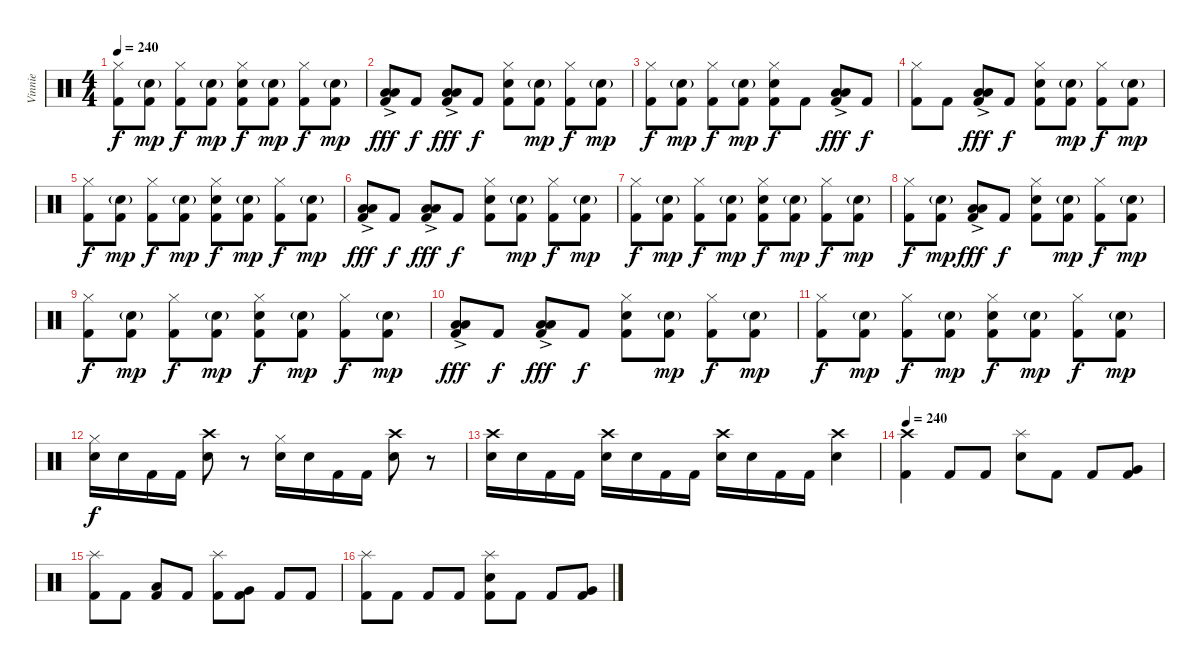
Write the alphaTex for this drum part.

\track ("Vinnie" "Vinnie") {instrument percussion}
\staff {score}
\articulation defaults
\ts (4 4)
\tempo 240
\clef neutral
\ks c
("Hi-Hat (closed)" "Kick (hit) 2").8{dy f} ("Electric Snare (hit)"{g} "Kick (hit) 2").8{dy mp} ("Hi-Hat (closed)" "Kick (hit) 2").8{dy f} ("Electric Snare (hit)"{g} "Kick (hit) 2").8{dy mp} ("Hi-Hat (closed)" "Electric Snare (hit)" "Kick (hit) 2").8{dy f} ("Electric Snare (hit)"{g} "Kick (hit) 2").8{dy mp} ("Hi-Hat (closed)" "Kick (hit) 2").8{dy f} ("Electric Snare (hit)"{g} "Kick (hit) 2").8{dy mp} |
("Low Tom (hit)"{ac} "Low Tom (hit)"{ac} "Kick (hit) 2").8{dy fff} "Kick (hit) 2".8{dy f} ("Low Tom (hit)"{ac} "Low Tom (hit)"{ac} "Kick (hit) 2").8{dy fff} "Kick (hit) 2".8{dy f} ("Hi-Hat (closed)" "Electric Snare (hit)" "Kick (hit) 2").8 ("Electric Snare (hit)"{g} "Kick (hit) 2").8{dy mp} ("Hi-Hat (closed)" "Kick (hit) 2").8{dy f} ("Electric Snare (hit)"{g} "Kick (hit) 2").8{dy mp} |
("Hi-Hat (closed)" "Kick (hit) 2").8{dy f} ("Electric Snare (hit)"{g} "Kick (hit) 2").8{dy mp} ("Hi-Hat (closed)" "Kick (hit) 2").8{dy f} ("Electric Snare (hit)"{g} "Kick (hit) 2").8{dy mp} ("Hi-Hat (closed)" "Electric Snare (hit)" "Kick (hit) 2").8{dy f} "Kick (hit) 2".8 ("Low Tom (hit)"{ac} "Low Tom (hit)"{ac} "Kick (hit) 2").8{dy fff} "Kick (hit) 2".8{dy f} |
("Hi-Hat (closed)" "Kick (hit) 2").8 "Kick (hit) 2".8 ("Low Tom (hit)"{ac} "Low Tom (hit)"{ac} "Kick (hit) 2").8{dy fff} "Kick (hit) 2".8{dy f} ("Hi-Hat (closed)" "Electric Snare (hit)" "Kick (hit) 2").8 ("Electric Snare (hit)"{g} "Kick (hit) 2").8{dy mp} ("Hi-Hat (closed)" "Kick (hit) 2").8{dy f} ("Electric Snare (hit)"{g} "Kick (hit) 2").8{dy mp} |
("Hi-Hat (closed)" "Kick (hit) 2").8{dy f} ("Electric Snare (hit)"{g} "Kick (hit) 2").8{dy mp} ("Hi-Hat (closed)" "Kick (hit) 2").8{dy f} ("Electric Snare (hit)"{g} "Kick (hit) 2").8{dy mp} ("Hi-Hat (closed)" "Electric Snare (hit)" "Kick (hit) 2").8{dy f} ("Electric Snare (hit)"{g} "Kick (hit) 2").8{dy mp} ("Hi-Hat (closed)" "Kick (hit) 2").8{dy f} ("Electric Snare (hit)"{g} "Kick (hit) 2").8{dy mp} |
("Low Tom (hit)"{ac} "Low Tom (hit)"{ac} "Kick (hit) 2").8{dy fff} "Kick (hit) 2".8{dy f} ("Low Tom (hit)"{ac} "Low Tom (hit)"{ac} "Kick (hit) 2").8{dy fff} "Kick (hit) 2".8{dy f} ("Hi-Hat (closed)" "Electric Snare (hit)" "Kick (hit) 2").8 ("Electric Snare (hit)"{g} "Kick (hit) 2").8{dy mp} ("Hi-Hat (closed)" "Kick (hit) 2").8{dy f} ("Electric Snare (hit)"{g} "Kick (hit) 2").8{dy mp} |
("Hi-Hat (closed)" "Kick (hit) 2").8{dy f} ("Electric Snare (hit)"{g} "Kick (hit) 2").8{dy mp} ("Hi-Hat (closed)" "Kick (hit) 2").8{dy f} ("Electric Snare (hit)"{g} "Kick (hit) 2").8{dy mp} ("Hi-Hat (closed)" "Electric Snare (hit)" "Kick (hit) 2").8{dy f} ("Electric Snare (hit)"{g} "Kick (hit) 2").8{dy mp} ("Hi-Hat (closed)" "Kick (hit) 2").8{dy f} ("Electric Snare (hit)"{g} "Kick (hit) 2").8{dy mp} |
("Hi-Hat (closed)" "Kick (hit) 2").8{dy f} ("Electric Snare (hit)"{g} "Kick (hit) 2").8{dy mp} ("Low Tom (hit)"{ac} "Low Tom (hit)"{ac} "Kick (hit) 2").8{dy fff} "Kick (hit) 2".8{dy f} ("Hi-Hat (closed)" "Electric Snare (hit)" "Kick (hit) 2").8 ("Electric Snare (hit)"{g} "Kick (hit) 2").8{dy mp} ("Hi-Hat (closed)" "Kick (hit) 2").8{dy f} ("Electric Snare (hit)"{g} "Kick (hit) 2").8{dy mp} |
("Hi-Hat (closed)" "Kick (hit) 2").8{dy f} ("Electric Snare (hit)"{g} "Kick (hit) 2").8{dy mp} ("Hi-Hat (closed)" "Kick (hit) 2").8{dy f} ("Electric Snare (hit)"{g} "Kick (hit) 2").8{dy mp} ("Hi-Hat (closed)" "Electric Snare (hit)" "Kick (hit) 2").8{dy f} ("Electric Snare (hit)"{g} "Kick (hit) 2").8{dy mp} ("Hi-Hat (closed)" "Kick (hit) 2").8{dy f} ("Electric Snare (hit)"{g} "Kick (hit) 2").8{dy mp} |
("Low Tom (hit)"{ac} "Low Tom (hit)"{ac} "Kick (hit) 2").8{dy fff} "Kick (hit) 2".8{dy f} ("Low Tom (hit)"{ac} "Low Tom (hit)"{ac} "Kick (hit) 2").8{dy fff} "Kick (hit) 2".8{dy f} ("Hi-Hat (closed)" "Electric Snare (hit)" "Kick (hit) 2").8 ("Electric Snare (hit)"{g} "Kick (hit) 2").8{dy mp} ("Hi-Hat (closed)" "Kick (hit) 2").8{dy f} ("Electric Snare (hit)"{g} "Kick (hit) 2").8{dy mp} |
("Hi-Hat (closed)" "Kick (hit) 2").8{dy f} ("Electric Snare (hit)"{g} "Kick (hit) 2").8{dy mp} ("Hi-Hat (closed)" "Kick (hit) 2").8{dy f} ("Electric Snare (hit)"{g} "Kick (hit) 2").8{dy mp} ("Hi-Hat (closed)" "Electric Snare (hit)" "Kick (hit) 2").8{dy f} ("Electric Snare (hit)"{g} "Kick (hit) 2").8{dy mp} ("Hi-Hat (closed)" "Kick (hit) 2").8{dy f} ("Electric Snare (hit)"{g} "Kick (hit) 2").8{dy mp} |
("Hi-Hat (closed)" "Electric Snare (hit)").16{dy f} "Electric Snare (hit)".16 "Kick (hit) 2".16 "Kick (hit) 2".16 ("Crash high (hit)" "Electric Snare (hit)").8 r.8 ("Hi-Hat (closed)" "Electric Snare (hit)").16 "Electric Snare (hit)".16 "Kick (hit) 2".16 "Kick (hit) 2".16 ("Crash high (hit)" "Electric Snare (hit)").8 r.8 |
("Crash high (hit)" "Electric Snare (hit)").16 "Electric Snare (hit)".16 "Kick (hit) 2".16 "Kick (hit) 2".16 ("Crash high (hit)" "Electric Snare (hit)").16 "Electric Snare (hit)".16 "Kick (hit) 2".16 "Kick (hit) 2".16 ("Crash high (hit)" "Electric Snare (hit)").16 "Electric Snare (hit)".16 "Kick (hit) 2".16 "Kick (hit) 2".16 ("Crash high (hit)" "Electric Snare (hit)").4 |
\tempo 240
("Crash high (hit)" "Kick (hit) 2").4 "Kick (hit) 2".8 "Kick (hit) 2".8 ("Splash (hit)" "Electric Snare (hit)").8 "Kick (hit) 2".8 "Kick (hit) 2".8 ("Very Low Tom (hit)" "Kick (hit) 2").8 |
("Splash (hit)" "Kick (hit) 2").8 "Kick (hit) 2".8 ("Low Tom (hit)" "Kick (hit) 2").8 "Kick (hit) 2".8 ("Splash (hit)" "Kick (hit) 2").8 ("Very Low Tom (hit)" "Kick (hit) 2").8 "Kick (hit) 2".8 "Kick (hit) 2".8 |
("Splash (hit)" "Kick (hit) 2").8 "Kick (hit) 2".8 "Kick (hit) 2".8 "Kick (hit) 2".8 ("Splash (hit)" "Electric Snare (hit)" "Kick (hit) 2").8 "Kick (hit) 2".8 "Kick (hit) 2".8 ("Very Low Tom (hit)" "Kick (hit) 2").8
